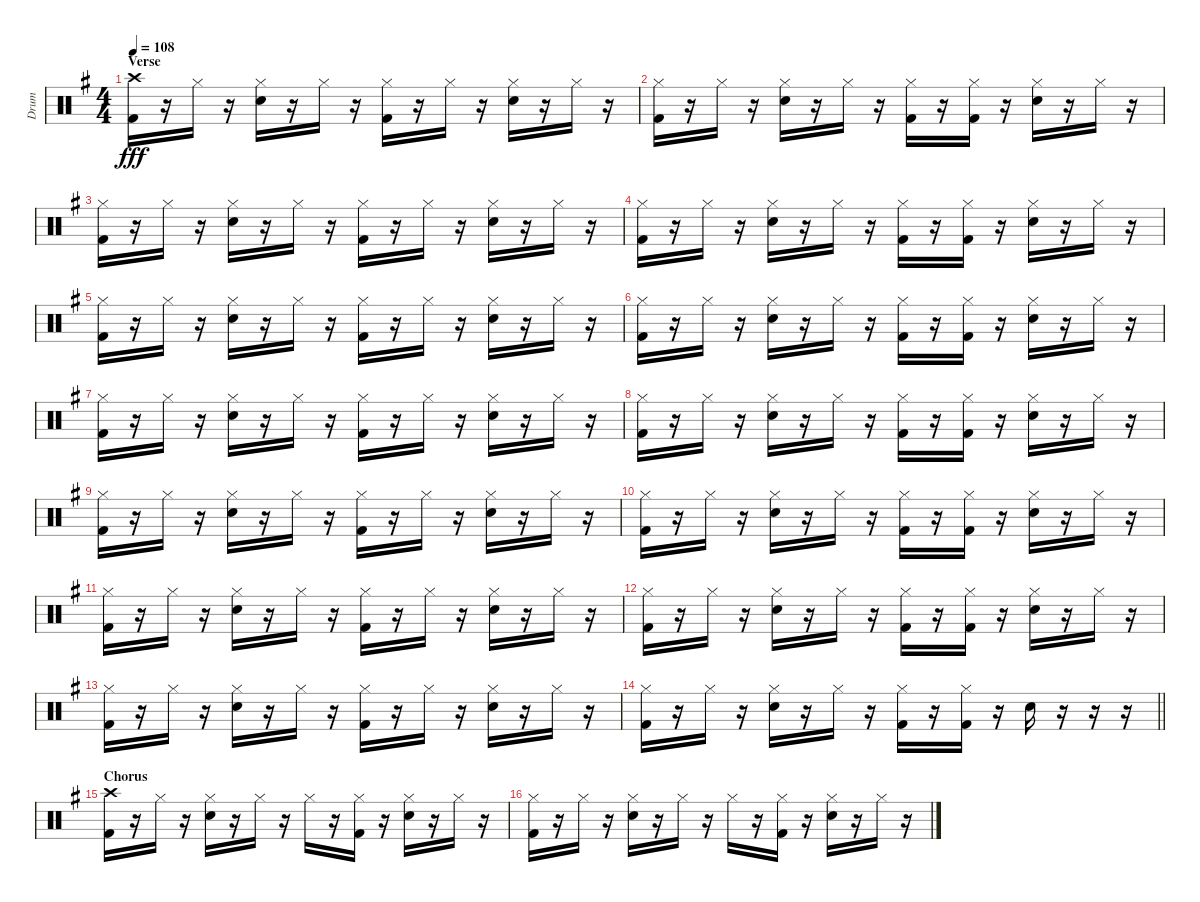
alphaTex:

\track ("Drum" "Drum") {instrument percussion}
\staff {score}
\articulation defaults
\ts (4 4)
\section ("" "Verse")
\tempo 108
\clef neutral
\ks g
("Crash high (hit)" "Kick (hit) 2").16{dy fff} r.16 "Hi-Hat (closed)".16 r.16 ("Hi-Hat (closed)" "Electric Snare (hit)").16 r.16 "Hi-Hat (closed)".16 r.16 ("Hi-Hat (closed)" "Kick (hit) 2").16 r.16 "Hi-Hat (closed)".16 r.16 ("Hi-Hat (closed)" "Electric Snare (hit)").16 r.16 "Hi-Hat (closed)".16 r.16 |
("Hi-Hat (closed)" "Kick (hit) 2").16 r.16 "Hi-Hat (closed)".16 r.16 ("Hi-Hat (closed)" "Electric Snare (hit)").16 r.16 "Hi-Hat (closed)".16 r.16 ("Hi-Hat (closed)" "Kick (hit) 2").16 r.16 ("Hi-Hat (closed)" "Kick (hit) 2").16 r.16 ("Hi-Hat (closed)" "Electric Snare (hit)").16 r.16 "Hi-Hat (closed)".16 r.16 |
("Hi-Hat (closed)" "Kick (hit) 2").16 r.16 "Hi-Hat (closed)".16 r.16 ("Hi-Hat (closed)" "Electric Snare (hit)").16 r.16 "Hi-Hat (closed)".16 r.16 ("Hi-Hat (closed)" "Kick (hit) 2").16 r.16 "Hi-Hat (closed)".16 r.16 ("Hi-Hat (closed)" "Electric Snare (hit)").16 r.16 "Hi-Hat (closed)".16 r.16 |
("Hi-Hat (closed)" "Kick (hit) 2").16 r.16 "Hi-Hat (closed)".16 r.16 ("Hi-Hat (closed)" "Electric Snare (hit)").16 r.16 "Hi-Hat (closed)".16 r.16 ("Hi-Hat (closed)" "Kick (hit) 2").16 r.16 ("Hi-Hat (closed)" "Kick (hit) 2").16 r.16 ("Hi-Hat (closed)" "Electric Snare (hit)").16 r.16 "Hi-Hat (closed)".16 r.16 |
("Hi-Hat (closed)" "Kick (hit) 2").16 r.16 "Hi-Hat (closed)".16 r.16 ("Hi-Hat (closed)" "Electric Snare (hit)").16 r.16 "Hi-Hat (closed)".16 r.16 ("Hi-Hat (closed)" "Kick (hit) 2").16 r.16 "Hi-Hat (closed)".16 r.16 ("Hi-Hat (closed)" "Electric Snare (hit)").16 r.16 "Hi-Hat (closed)".16 r.16 |
("Hi-Hat (closed)" "Kick (hit) 2").16 r.16 "Hi-Hat (closed)".16 r.16 ("Hi-Hat (closed)" "Electric Snare (hit)").16 r.16 "Hi-Hat (closed)".16 r.16 ("Hi-Hat (closed)" "Kick (hit) 2").16 r.16 ("Hi-Hat (closed)" "Kick (hit) 2").16 r.16 ("Hi-Hat (closed)" "Electric Snare (hit)").16 r.16 "Hi-Hat (closed)".16 r.16 |
("Hi-Hat (closed)" "Kick (hit) 2").16 r.16 "Hi-Hat (closed)".16 r.16 ("Hi-Hat (closed)" "Electric Snare (hit)").16 r.16 "Hi-Hat (closed)".16 r.16 ("Hi-Hat (closed)" "Kick (hit) 2").16 r.16 "Hi-Hat (closed)".16 r.16 ("Hi-Hat (closed)" "Electric Snare (hit)").16 r.16 "Hi-Hat (closed)".16 r.16 |
("Hi-Hat (closed)" "Kick (hit) 2").16 r.16 "Hi-Hat (closed)".16 r.16 ("Hi-Hat (closed)" "Electric Snare (hit)").16 r.16 "Hi-Hat (closed)".16 r.16 ("Hi-Hat (closed)" "Kick (hit) 2").16 r.16 ("Hi-Hat (closed)" "Kick (hit) 2").16 r.16 ("Hi-Hat (closed)" "Electric Snare (hit)").16 r.16 "Hi-Hat (closed)".16 r.16 |
("Hi-Hat (closed)" "Kick (hit) 2").16 r.16 "Hi-Hat (closed)".16 r.16 ("Hi-Hat (closed)" "Electric Snare (hit)").16 r.16 "Hi-Hat (closed)".16 r.16 ("Hi-Hat (closed)" "Kick (hit) 2").16 r.16 "Hi-Hat (closed)".16 r.16 ("Hi-Hat (closed)" "Electric Snare (hit)").16 r.16 "Hi-Hat (closed)".16 r.16 |
("Hi-Hat (closed)" "Kick (hit) 2").16 r.16 "Hi-Hat (closed)".16 r.16 ("Hi-Hat (closed)" "Electric Snare (hit)").16 r.16 "Hi-Hat (closed)".16 r.16 ("Hi-Hat (closed)" "Kick (hit) 2").16 r.16 ("Hi-Hat (closed)" "Kick (hit) 2").16 r.16 ("Hi-Hat (closed)" "Electric Snare (hit)").16 r.16 "Hi-Hat (closed)".16 r.16 |
("Hi-Hat (closed)" "Kick (hit) 2").16 r.16 "Hi-Hat (closed)".16 r.16 ("Hi-Hat (closed)" "Electric Snare (hit)").16 r.16 "Hi-Hat (closed)".16 r.16 ("Hi-Hat (closed)" "Kick (hit) 2").16 r.16 "Hi-Hat (closed)".16 r.16 ("Hi-Hat (closed)" "Electric Snare (hit)").16 r.16 "Hi-Hat (closed)".16 r.16 |
("Hi-Hat (closed)" "Kick (hit) 2").16 r.16 "Hi-Hat (closed)".16 r.16 ("Hi-Hat (closed)" "Electric Snare (hit)").16 r.16 "Hi-Hat (closed)".16 r.16 ("Hi-Hat (closed)" "Kick (hit) 2").16 r.16 ("Hi-Hat (closed)" "Kick (hit) 2").16 r.16 ("Hi-Hat (closed)" "Electric Snare (hit)").16 r.16 "Hi-Hat (closed)".16 r.16 |
("Hi-Hat (closed)" "Kick (hit) 2").16 r.16 "Hi-Hat (closed)".16 r.16 ("Hi-Hat (closed)" "Electric Snare (hit)").16 r.16 "Hi-Hat (closed)".16 r.16 ("Hi-Hat (closed)" "Kick (hit) 2").16 r.16 "Hi-Hat (closed)".16 r.16 ("Hi-Hat (closed)" "Electric Snare (hit)").16 r.16 "Hi-Hat (closed)".16 r.16 |
\barLineRight lightlight
("Hi-Hat (closed)" "Kick (hit) 2").16 r.16 "Hi-Hat (closed)".16 r.16 ("Hi-Hat (closed)" "Electric Snare (hit)").16 r.16 "Hi-Hat (closed)".16 r.16 ("Hi-Hat (closed)" "Kick (hit) 2").16 r.16 ("Hi-Hat (closed)" "Kick (hit) 2").16 r.16 "Electric Snare (hit)".16 r.16 r.16 r.16 |
\section ("" "Chorus")
("Crash high (hit)" "Kick (hit) 2").16 r.16 "Hi-Hat (closed)".16 r.16 ("Hi-Hat (closed)" "Electric Snare (hit)").16 r.16 "Hi-Hat (closed)".16 r.16 "Hi-Hat (closed)".16 r.16 ("Hi-Hat (closed)" "Kick (hit) 2").16 r.16 ("Hi-Hat (closed)" "Electric Snare (hit)").16 r.16 "Hi-Hat (closed)".16 r.16 |
("Hi-Hat (closed)" "Kick (hit) 2").16 r.16 "Hi-Hat (closed)".16 r.16 ("Hi-Hat (closed)" "Electric Snare (hit)").16 r.16 "Hi-Hat (closed)".16 r.16 "Hi-Hat (closed)".16 r.16 ("Hi-Hat (closed)" "Kick (hit) 2").16 r.16 ("Hi-Hat (closed)" "Electric Snare (hit)").16 r.16 "Hi-Hat (closed)".16 r.16
